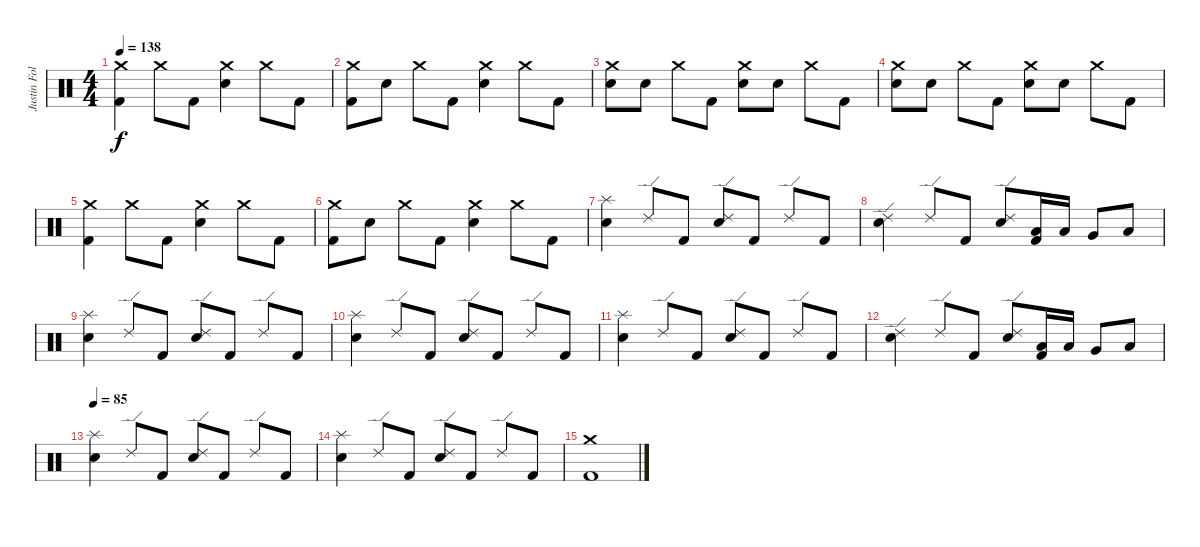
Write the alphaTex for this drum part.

\track ("Justin Foley" "Justin Fol") {instrument percussion}
\staff {score}
\articulation defaults
\ts (4 4)
\tempo 138
\clef neutral
\ks c
("Crash medium (hit)" "Kick (hit) 2").4{dy f} "Crash medium (hit)".8 "Kick (hit) 2".8 ("Crash medium (hit)" "Electric Snare (hit)").4 "Crash medium (hit)".8 "Kick (hit) 2".8 |
("Crash medium (hit)" "Kick (hit) 2").8 "Electric Snare (hit)".8 "Crash medium (hit)".8 "Kick (hit) 2".8 ("Crash medium (hit)" "Electric Snare (hit)").4 "Crash medium (hit)".8 "Kick (hit) 2".8 |
("Crash medium (hit)" "Electric Snare (hit)").8 "Electric Snare (hit)".8 "Crash medium (hit)".8 "Kick (hit) 2".8 ("Crash medium (hit)" "Electric Snare (hit)").8 "Electric Snare (hit)".8 "Crash medium (hit)".8 "Kick (hit) 2".8 |
("Crash medium (hit)" "Electric Snare (hit)").8 "Electric Snare (hit)".8 "Crash medium (hit)".8 "Kick (hit) 2".8 ("Crash medium (hit)" "Electric Snare (hit)").8 "Electric Snare (hit)".8 "Crash medium (hit)".8 "Kick (hit) 2".8 |
("Crash medium (hit)" "Kick (hit) 2").4 "Crash medium (hit)".8 "Kick (hit) 2".8 ("Crash medium (hit)" "Electric Snare (hit)").4 "Crash medium (hit)".8 "Kick (hit) 2".8 |
("Crash medium (hit)" "Kick (hit) 2").8 "Electric Snare (hit)".8 "Crash medium (hit)".8 "Kick (hit) 2".8 ("Crash medium (hit)" "Electric Snare (hit)").4 "Crash medium (hit)".8 "Kick (hit) 2".8 |
("Splash (hit)" "Electric Snare (hit)").4 "Ride (edge) 2".8 "Kick (hit) 2".8 ("Ride (edge) 2" "Electric Snare (hit)").8 "Kick (hit) 2".8 "Ride (edge) 2".8 "Kick (hit) 2".8 |
("Ride (edge) 2" "Electric Snare (hit)").4 "Ride (edge) 2".8 "Kick (hit) 2".8 ("Ride (edge) 2" "Electric Snare (hit)").8 ("Low Tom (hit)" "Kick (hit) 2").16 "Low Tom (hit)".16 "Very Low Tom (hit)".8 "Low Floor Tom (hit)".8 |
("Splash (hit)" "Electric Snare (hit)").4 "Ride (edge) 2".8 "Kick (hit) 2".8 ("Ride (edge) 2" "Electric Snare (hit)").8 "Kick (hit) 2".8 "Ride (edge) 2".8 "Kick (hit) 2".8 |
("Splash (hit)" "Electric Snare (hit)").4 "Ride (edge) 2".8 "Kick (hit) 2".8 ("Ride (edge) 2" "Electric Snare (hit)").8 "Kick (hit) 2".8 "Ride (edge) 2".8 "Kick (hit) 2".8 |
("Splash (hit)" "Electric Snare (hit)").4 "Ride (edge) 2".8 "Kick (hit) 2".8 ("Ride (edge) 2" "Electric Snare (hit)").8 "Kick (hit) 2".8 "Ride (edge) 2".8 "Kick (hit) 2".8 |
("Ride (edge) 2" "Electric Snare (hit)").4 "Ride (edge) 2".8 "Kick (hit) 2".8 ("Ride (edge) 2" "Electric Snare (hit)").8 ("Low Tom (hit)" "Kick (hit) 2").16 "Low Tom (hit)".16 "Very Low Tom (hit)".8 "Low Floor Tom (hit)".8 |
\tempo 85
("Splash (hit)" "Electric Snare (hit)").4 "Ride (edge) 2".8 "Kick (hit) 2".8 ("Ride (edge) 2" "Electric Snare (hit)").8 "Kick (hit) 2".8 "Ride (edge) 2".8 "Kick (hit) 2".8 |
("Splash (hit)" "Electric Snare (hit)").4 "Ride (edge) 2".8 "Kick (hit) 2".8 ("Ride (edge) 2" "Electric Snare (hit)").8 "Kick (hit) 2".8 "Ride (edge) 2".8 "Kick (hit) 2".8 |
("Crash medium (hit)" "Kick (hit) 2").1
